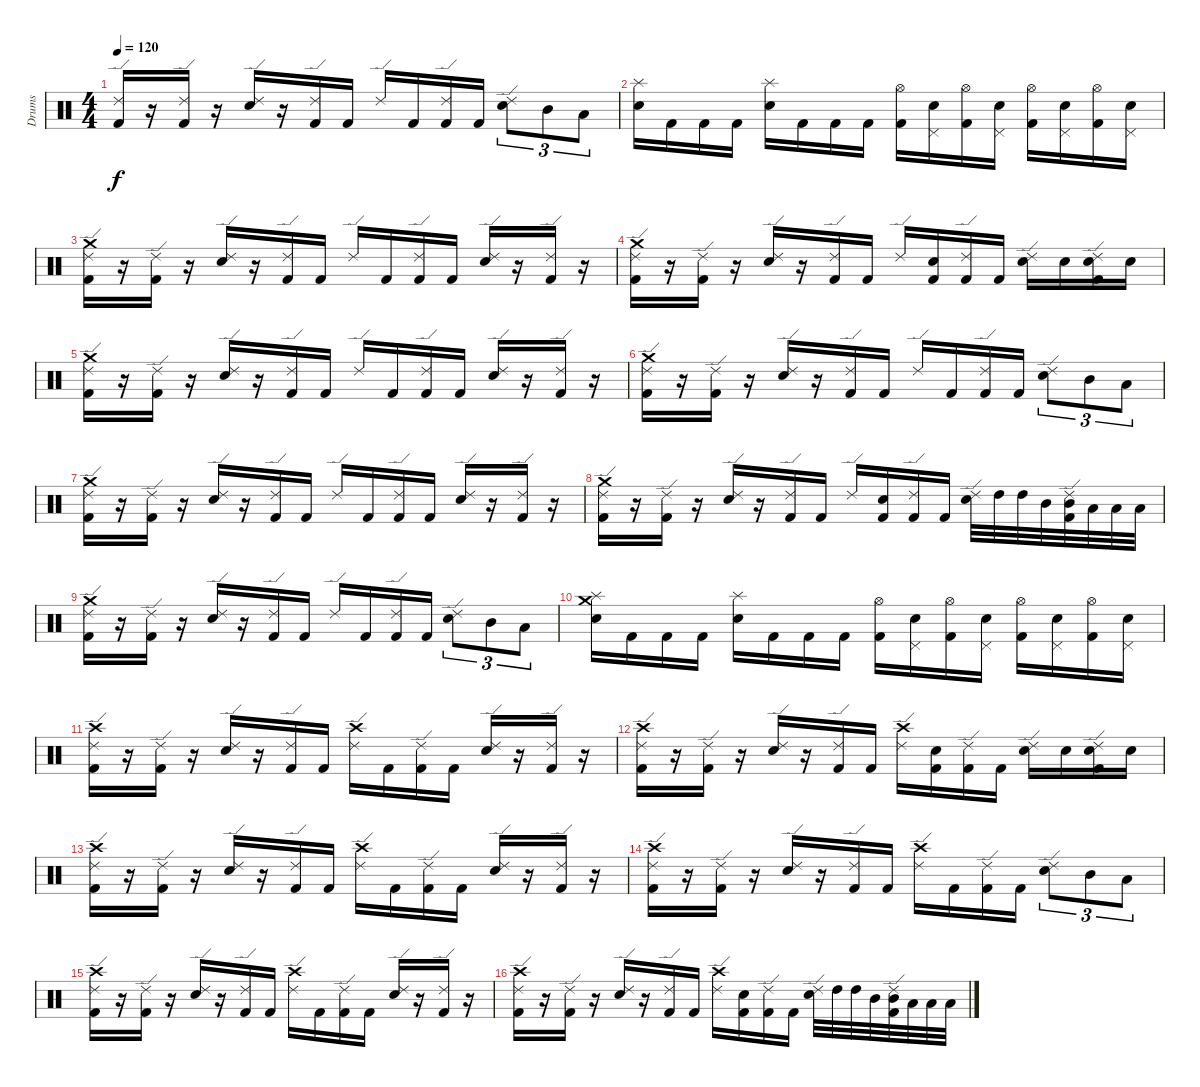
\track ("Drums" "Drums") {instrument percussion}
\staff {score}
\articulation defaults
\ts (4 4)
\tempo 120
\clef neutral
\ks c
("Ride (edge) 2" "Kick (hit) 2").16{dy f} r.16 ("Ride (edge) 2" "Kick (hit) 2").16 r.16 ("Ride (edge) 2" "Electric Snare (hit)").16 r.16 ("Ride (edge) 2" "Kick (hit) 2").16 "Kick (hit) 2".16 "Ride (edge) 2".16 "Kick (hit) 2".16 ("Ride (edge) 2" "Kick (hit) 2").16 "Kick (hit) 2".16 ("Ride (edge) 2" "Electric Snare (hit)").8{tu (3 2)} "Mid Tom (hit)".8{tu (3 2)} "Low Tom (hit)".8{tu (3 2)} |
("Splash (hit)" "Electric Snare (hit)").16 "Kick (hit) 2".16 "Kick (hit) 2".16 "Kick (hit) 2".16 ("Splash (hit)" "Electric Snare (hit)").16 "Kick (hit) 2".16 "Kick (hit) 2".16 "Kick (hit) 2".16 ("Hi-Hat (open)" "Kick (hit) 2").16 ("Pedal Hi-Hat (hit)" "Electric Snare (hit)").16 ("Hi-Hat (open)" "Kick (hit) 2").16 ("Pedal Hi-Hat (hit)" "Electric Snare (hit)").16 ("Hi-Hat (open)" "Kick (hit) 2").16 ("Pedal Hi-Hat (hit)" "Electric Snare (hit)").16 ("Hi-Hat (open)" "Kick (hit) 2").16 ("Pedal Hi-Hat (hit)" "Electric Snare (hit)").16 |
("Crash medium (hit)" "Ride (edge) 2" "Kick (hit) 2").16 r.16 ("Ride (edge) 2" "Kick (hit) 2").16 r.16 ("Ride (edge) 2" "Electric Snare (hit)").16 r.16 ("Ride (edge) 2" "Kick (hit) 2").16 "Kick (hit) 2".16 "Ride (edge) 2".16 "Kick (hit) 2".16 ("Ride (edge) 2" "Kick (hit) 2").16 "Kick (hit) 2".16 ("Ride (edge) 2" "Electric Snare (hit)").16 r.16 ("Ride (edge) 2" "Kick (hit) 2").16 r.16 |
("Crash medium (hit)" "Ride (edge) 2" "Kick (hit) 2").16 r.16 ("Ride (edge) 2" "Kick (hit) 2").16 r.16 ("Ride (edge) 2" "Electric Snare (hit)").16 r.16 ("Ride (edge) 2" "Kick (hit) 2").16 "Kick (hit) 2".16 "Ride (edge) 2".16 ("Electric Snare (hit)" "Kick (hit) 2").16 ("Ride (edge) 2" "Kick (hit) 2").16 "Kick (hit) 2".16 ("Ride (edge) 2" "Electric Snare (hit)").16 "Electric Snare (hit)".16 ("Ride (edge) 2" "Electric Snare (hit)" "Kick (hit) 2").16 "Electric Snare (hit)".16 |
("Crash medium (hit)" "Ride (edge) 2" "Kick (hit) 2").16 r.16 ("Ride (edge) 2" "Kick (hit) 2").16 r.16 ("Ride (edge) 2" "Electric Snare (hit)").16 r.16 ("Ride (edge) 2" "Kick (hit) 2").16 "Kick (hit) 2".16 "Ride (edge) 2".16 "Kick (hit) 2".16 ("Ride (edge) 2" "Kick (hit) 2").16 "Kick (hit) 2".16 ("Ride (edge) 2" "Electric Snare (hit)").16 r.16 ("Ride (edge) 2" "Kick (hit) 2").16 r.16 |
("Crash medium (hit)" "Ride (edge) 2" "Kick (hit) 2").16 r.16 ("Ride (edge) 2" "Kick (hit) 2").16 r.16 ("Ride (edge) 2" "Electric Snare (hit)").16 r.16 ("Ride (edge) 2" "Kick (hit) 2").16 "Kick (hit) 2".16 "Ride (edge) 2".16 "Kick (hit) 2".16 ("Ride (edge) 2" "Kick (hit) 2").16 "Kick (hit) 2".16 ("Ride (edge) 2" "Electric Snare (hit)").8{tu (3 2)} "Mid Tom (hit)".8{tu (3 2)} "Low Tom (hit)".8{tu (3 2)} |
("Crash medium (hit)" "Ride (edge) 2" "Kick (hit) 2").16 r.16 ("Ride (edge) 2" "Kick (hit) 2").16 r.16 ("Ride (edge) 2" "Electric Snare (hit)").16 r.16 ("Ride (edge) 2" "Kick (hit) 2").16 "Kick (hit) 2".16 "Ride (edge) 2".16 "Kick (hit) 2".16 ("Ride (edge) 2" "Kick (hit) 2").16 "Kick (hit) 2".16 ("Ride (edge) 2" "Electric Snare (hit)").16 r.16 ("Ride (edge) 2" "Kick (hit) 2").16 r.16 |
("Crash medium (hit)" "Ride (edge) 2" "Kick (hit) 2").16 r.16 ("Ride (edge) 2" "Kick (hit) 2").16 r.16 ("Ride (edge) 2" "Electric Snare (hit)").16 r.16 ("Ride (edge) 2" "Kick (hit) 2").16 "Kick (hit) 2".16 "Ride (edge) 2".16 ("Electric Snare (hit)" "Kick (hit) 2").16 ("Ride (edge) 2" "Kick (hit) 2").16 "Kick (hit) 2".16 ("Ride (edge) 2" "Electric Snare (hit)").32 "High Tom (hit)".32 "High Tom (hit)".32 "Mid Tom (hit)".32 ("Ride (edge) 2" "Mid Tom (hit)" "Kick (hit) 2").32 "Low Tom (hit)".32 "Low Tom (hit)".32 "Low Tom (hit)".32 |
("Crash medium (hit)" "Ride (edge) 2" "Kick (hit) 2").16 r.16 ("Ride (edge) 2" "Kick (hit) 2").16 r.16 ("Ride (edge) 2" "Electric Snare (hit)").16 r.16 ("Ride (edge) 2" "Kick (hit) 2").16 "Kick (hit) 2".16 "Ride (edge) 2".16 "Kick (hit) 2".16 ("Ride (edge) 2" "Kick (hit) 2").16 "Kick (hit) 2".16 ("Ride (edge) 2" "Electric Snare (hit)").8{tu (3 2)} "Mid Tom (hit)".8{tu (3 2)} "Low Tom (hit)".8{tu (3 2)} |
("Crash medium (hit)" "Splash (hit)" "Electric Snare (hit)").16 "Kick (hit) 2".16 "Kick (hit) 2".16 "Kick (hit) 2".16 ("Splash (hit)" "Electric Snare (hit)").16 "Kick (hit) 2".16 "Kick (hit) 2".16 "Kick (hit) 2".16 ("Hi-Hat (open)" "Kick (hit) 2").16 ("Pedal Hi-Hat (hit)" "Electric Snare (hit)").16 ("Hi-Hat (open)" "Kick (hit) 2").16 ("Pedal Hi-Hat (hit)" "Electric Snare (hit)").16 ("Hi-Hat (open)" "Kick (hit) 2").16 ("Pedal Hi-Hat (hit)" "Electric Snare (hit)").16 ("Hi-Hat (open)" "Kick (hit) 2").16 ("Pedal Hi-Hat (hit)" "Electric Snare (hit)").16 |
("Crash high (hit)" "Ride (edge) 2" "Kick (hit) 2").16 r.16 ("Ride (edge) 2" "Kick (hit) 2").16 r.16 ("Ride (edge) 2" "Electric Snare (hit)").16 r.16 ("Ride (edge) 2" "Kick (hit) 2").16 "Kick (hit) 2".16 ("Crash high (hit)" "Ride (edge) 2").16 "Kick (hit) 2".16 ("Ride (edge) 2" "Kick (hit) 2").16 "Kick (hit) 2".16 ("Ride (edge) 2" "Electric Snare (hit)").16 r.16 ("Ride (edge) 2" "Kick (hit) 2").16 r.16 |
("Crash high (hit)" "Ride (edge) 2" "Kick (hit) 2").16 r.16 ("Ride (edge) 2" "Kick (hit) 2").16 r.16 ("Ride (edge) 2" "Electric Snare (hit)").16 r.16 ("Ride (edge) 2" "Kick (hit) 2").16 "Kick (hit) 2".16 ("Crash high (hit)" "Ride (edge) 2").16 ("Electric Snare (hit)" "Kick (hit) 2").16 ("Ride (edge) 2" "Kick (hit) 2").16 "Kick (hit) 2".16 ("Ride (edge) 2" "Electric Snare (hit)").16 "Electric Snare (hit)".16 ("Ride (edge) 2" "Electric Snare (hit)" "Kick (hit) 2").16 "Electric Snare (hit)".16 |
("Crash high (hit)" "Ride (edge) 2" "Kick (hit) 2").16 r.16 ("Ride (edge) 2" "Kick (hit) 2").16 r.16 ("Ride (edge) 2" "Electric Snare (hit)").16 r.16 ("Ride (edge) 2" "Kick (hit) 2").16 "Kick (hit) 2".16 ("Crash high (hit)" "Ride (edge) 2").16 "Kick (hit) 2".16 ("Ride (edge) 2" "Kick (hit) 2").16 "Kick (hit) 2".16 ("Ride (edge) 2" "Electric Snare (hit)").16 r.16 ("Ride (edge) 2" "Kick (hit) 2").16 r.16 |
("Crash high (hit)" "Ride (edge) 2" "Kick (hit) 2").16 r.16 ("Ride (edge) 2" "Kick (hit) 2").16 r.16 ("Ride (edge) 2" "Electric Snare (hit)").16 r.16 ("Ride (edge) 2" "Kick (hit) 2").16 "Kick (hit) 2".16 ("Crash high (hit)" "Ride (edge) 2").16 "Kick (hit) 2".16 ("Ride (edge) 2" "Kick (hit) 2").16 "Kick (hit) 2".16 ("Ride (edge) 2" "Electric Snare (hit)").8{tu (3 2)} "Mid Tom (hit)".8{tu (3 2)} "Low Tom (hit)".8{tu (3 2)} |
("Crash high (hit)" "Ride (edge) 2" "Kick (hit) 2").16 r.16 ("Ride (edge) 2" "Kick (hit) 2").16 r.16 ("Ride (edge) 2" "Electric Snare (hit)").16 r.16 ("Ride (edge) 2" "Kick (hit) 2").16 "Kick (hit) 2".16 ("Crash high (hit)" "Ride (edge) 2").16 "Kick (hit) 2".16 ("Ride (edge) 2" "Kick (hit) 2").16 "Kick (hit) 2".16 ("Ride (edge) 2" "Electric Snare (hit)").16 r.16 ("Ride (edge) 2" "Kick (hit) 2").16 r.16 |
("Crash high (hit)" "Ride (edge) 2" "Kick (hit) 2").16 r.16 ("Ride (edge) 2" "Kick (hit) 2").16 r.16 ("Ride (edge) 2" "Electric Snare (hit)").16 r.16 ("Ride (edge) 2" "Kick (hit) 2").16 "Kick (hit) 2".16 ("Crash high (hit)" "Ride (edge) 2").16 ("Electric Snare (hit)" "Kick (hit) 2").16 ("Ride (edge) 2" "Kick (hit) 2").16 "Kick (hit) 2".16 ("Ride (edge) 2" "Electric Snare (hit)").32 "High Tom (hit)".32 "High Tom (hit)".32 "Mid Tom (hit)".32 ("Ride (edge) 2" "Mid Tom (hit)" "Kick (hit) 2").32 "Low Tom (hit)".32 "Low Tom (hit)".32 "Low Tom (hit)".32
